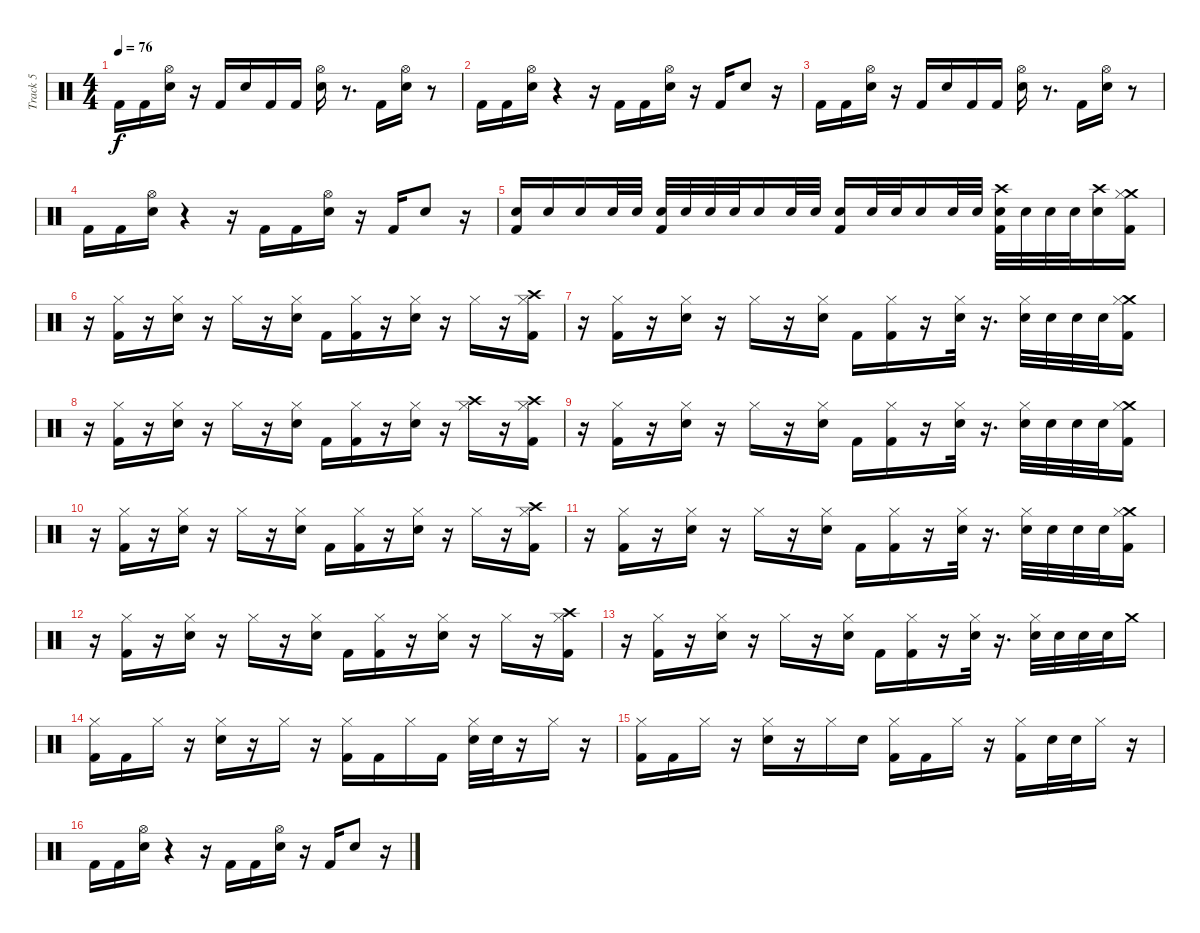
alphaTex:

\track ("Track 5" "Track 5") {instrument percussion}
\staff {score}
\articulation defaults
\ts (4 4)
\tempo 76
\clef neutral
\ks c "Kick (hit) 2".16{dy f} "Kick (hit) 2".16
("Electric Snare (hit)" "Hi-Hat (open)").16 r.16 "Kick (hit) 2".16 "Electric Snare (hit)".16 "Kick (hit) 2".16 "Kick (hit) 2".16 ("Hi-Hat (open)" "Electric Snare (hit)").16 r.8{d} "Kick (hit) 2".16 ("Hi-Hat (open)" "Electric Snare (hit)").16 r.8 |
"Kick (hit) 2".16 "Kick (hit) 2".16 ("Hi-Hat (open)" "Electric Snare (hit)").16 r.4 r.16 "Kick (hit) 2".16 "Kick (hit) 2".16 ("Electric Snare (hit)" "Hi-Hat (open)").16 r.16 "Kick (hit) 2".16 "Electric Snare (hit)".8 r.16 |
"Kick (hit) 2".16 "Kick (hit) 2".16 ("Electric Snare (hit)" "Hi-Hat (open)").16 r.16 "Kick (hit) 2".16 "Electric Snare (hit)".16 "Kick (hit) 2".16 "Kick (hit) 2".16 ("Hi-Hat (open)" "Electric Snare (hit)").16 r.8{d} "Kick (hit) 2".16 ("Hi-Hat (open)" "Electric Snare (hit)").16 r.8 |
"Kick (hit) 2".16 "Kick (hit) 2".16 ("Hi-Hat (open)" "Electric Snare (hit)").16 r.4 r.16 "Kick (hit) 2".16 "Kick (hit) 2".16 ("Electric Snare (hit)" "Hi-Hat (open)").16 r.16 "Kick (hit) 2".16 "Electric Snare (hit)".8 r.16 |
("Electric Snare (hit)" "Kick (hit) 2").16 "Electric Snare (hit)".16 "Electric Snare (hit)".16 "Electric Snare (hit)".32 "Electric Snare (hit)".32 ("Kick (hit) 2" "Electric Snare (hit)").32 "Electric Snare (hit)".32 "Electric Snare (hit)".32 "Electric Snare (hit)".32 "Electric Snare (hit)".16 "Electric Snare (hit)".32 "Electric Snare (hit)".32 ("Kick (hit) 2" "Electric Snare (hit)").16 "Electric Snare (hit)".32 "Electric Snare (hit)".32 "Electric Snare (hit)".16 "Electric Snare (hit)".32 "Electric Snare (hit)".32 ("Crash high (hit)" "Kick (hit) 2" "Electric Snare (hit)").32 "Electric Snare (hit)".32 "Electric Snare (hit)".32 "Electric Snare (hit)".32 ("Electric Snare (hit)" "Crash high (hit)").16 ("Crash medium (hit)" "Hi-Hat (closed)" "Kick (hit) 2").16 |
r.16 ("Hi-Hat (closed)" "Kick (hit) 2").16 r.16 ("Hi-Hat (closed)" "Electric Snare (hit)").16 r.16 "Hi-Hat (closed)".16 r.16 ("Electric Snare (hit)" "Hi-Hat (closed)").16 "Kick (hit) 2".16 ("Kick (hit) 2" "Hi-Hat (closed)").16 r.16 ("Hi-Hat (closed)" "Electric Snare (hit)").16 r.16 "Hi-Hat (closed)".16 r.16 ("Crash high (hit)" "Kick (hit) 2" "Hi-Hat (closed)").16 |
r.16 ("Kick (hit) 2" "Hi-Hat (closed)").16 r.16 ("Electric Snare (hit)" "Hi-Hat (closed)").16 r.16 "Hi-Hat (closed)".16 r.16 ("Electric Snare (hit)" "Hi-Hat (closed)").16 "Kick (hit) 2".16 ("Kick (hit) 2" "Hi-Hat (closed)").16 r.16 ("Electric Snare (hit)" "Hi-Hat (closed)").32 r.16{d} ("Electric Snare (hit)" "Hi-Hat (closed)").32 "Electric Snare (hit)".32 "Electric Snare (hit)".32 "Electric Snare (hit)".32 ("Crash medium (hit)" "Kick (hit) 2" "Hi-Hat (closed)").16 |
r.16 ("Kick (hit) 2" "Hi-Hat (closed)").16 r.16 ("Electric Snare (hit)" "Hi-Hat (closed)").16 r.16 "Hi-Hat (closed)".16 r.16 ("Electric Snare (hit)" "Hi-Hat (closed)").16 "Kick (hit) 2".16 ("Kick (hit) 2" "Hi-Hat (closed)").16 r.16 ("Electric Snare (hit)" "Hi-Hat (closed)").16 r.16 ("Crash high (hit)" "Hi-Hat (closed)").16 r.16 ("Crash high (hit)" "Kick (hit) 2" "Hi-Hat (closed)").16 |
r.16 ("Kick (hit) 2" "Hi-Hat (closed)").16 r.16 ("Electric Snare (hit)" "Hi-Hat (closed)").16 r.16 "Hi-Hat (closed)".16 r.16 ("Electric Snare (hit)" "Hi-Hat (closed)").16 "Kick (hit) 2".16 ("Kick (hit) 2" "Hi-Hat (closed)").16 r.16 ("Electric Snare (hit)" "Hi-Hat (closed)").32 r.16{d} ("Electric Snare (hit)" "Hi-Hat (closed)").32 "Electric Snare (hit)".32 "Electric Snare (hit)".32 "Electric Snare (hit)".32 ("Crash medium (hit)" "Kick (hit) 2" "Hi-Hat (closed)").16 |
r.16 ("Hi-Hat (closed)" "Kick (hit) 2").16 r.16 ("Hi-Hat (closed)" "Electric Snare (hit)").16 r.16 "Hi-Hat (closed)".16 r.16 ("Electric Snare (hit)" "Hi-Hat (closed)").16 "Kick (hit) 2".16 ("Kick (hit) 2" "Hi-Hat (closed)").16 r.16 ("Hi-Hat (closed)" "Electric Snare (hit)").16 r.16 "Hi-Hat (closed)".16 r.16 ("Crash high (hit)" "Kick (hit) 2" "Hi-Hat (closed)").16 |
r.16 ("Kick (hit) 2" "Hi-Hat (closed)").16 r.16 ("Electric Snare (hit)" "Hi-Hat (closed)").16 r.16 "Hi-Hat (closed)".16 r.16 ("Electric Snare (hit)" "Hi-Hat (closed)").16 "Kick (hit) 2".16 ("Kick (hit) 2" "Hi-Hat (closed)").16 r.16 ("Electric Snare (hit)" "Hi-Hat (closed)").32 r.16{d} ("Electric Snare (hit)" "Hi-Hat (closed)").32 "Electric Snare (hit)".32 "Electric Snare (hit)".32 "Electric Snare (hit)".32 ("Crash medium (hit)" "Kick (hit) 2" "Hi-Hat (closed)").16 |
r.16 ("Hi-Hat (closed)" "Kick (hit) 2").16 r.16 ("Hi-Hat (closed)" "Electric Snare (hit)").16 r.16 "Hi-Hat (closed)".16 r.16 ("Electric Snare (hit)" "Hi-Hat (closed)").16 "Kick (hit) 2".16 ("Kick (hit) 2" "Hi-Hat (closed)").16 r.16 ("Hi-Hat (closed)" "Electric Snare (hit)").16 r.16 "Hi-Hat (closed)".16 r.16 ("Crash high (hit)" "Kick (hit) 2" "Hi-Hat (closed)").16 |
r.16 ("Kick (hit) 2" "Hi-Hat (closed)").16 r.16 ("Electric Snare (hit)" "Hi-Hat (closed)").16 r.16 "Hi-Hat (closed)".16 r.16 ("Electric Snare (hit)" "Hi-Hat (closed)").16 "Kick (hit) 2".16 ("Kick (hit) 2" "Hi-Hat (closed)").16 r.16 ("Electric Snare (hit)" "Hi-Hat (closed)").32 r.16{d} ("Electric Snare (hit)" "Hi-Hat (closed)").32 "Electric Snare (hit)".32 "Electric Snare (hit)".32 "Electric Snare (hit)".32 "Crash medium (hit)".16 |
("Hi-Hat (closed)" "Kick (hit) 2").16 "Kick (hit) 2".16 "Hi-Hat (closed)".16 r.16 ("Electric Snare (hit)" "Hi-Hat (closed)").16 r.16 "Hi-Hat (closed)".16 r.16 ("Kick (hit) 2" "Hi-Hat (closed)").16 "Kick (hit) 2".16 "Hi-Hat (closed)".16 "Kick (hit) 2".16 ("Electric Snare (hit)" "Hi-Hat (closed)").32 "Electric Snare (hit)".32 r.16 "Hi-Hat (closed)".16 r.16 |
("Kick (hit) 2" "Hi-Hat (closed)").16 "Kick (hit) 2".16 "Hi-Hat (closed)".16 r.16 ("Hi-Hat (closed)" "Electric Snare (hit)").16 r.16 "Hi-Hat (closed)".16 "Electric Snare (hit)".16 ("Hi-Hat (closed)" "Kick (hit) 2").16 "Kick (hit) 2".16 "Hi-Hat (closed)".16 r.16 ("Kick (hit) 2" "Hi-Hat (closed)").16 "Electric Snare (hit)".32 "Electric Snare (hit)".32 "Hi-Hat (closed)".16 r.16 |
"Kick (hit) 2".16 "Kick (hit) 2".16 ("Hi-Hat (open)" "Electric Snare (hit)").16 r.4 r.16 "Kick (hit) 2".16 "Kick (hit) 2".16 ("Electric Snare (hit)" "Hi-Hat (open)").16 r.16 "Kick (hit) 2".16 "Electric Snare (hit)".8 r.16
